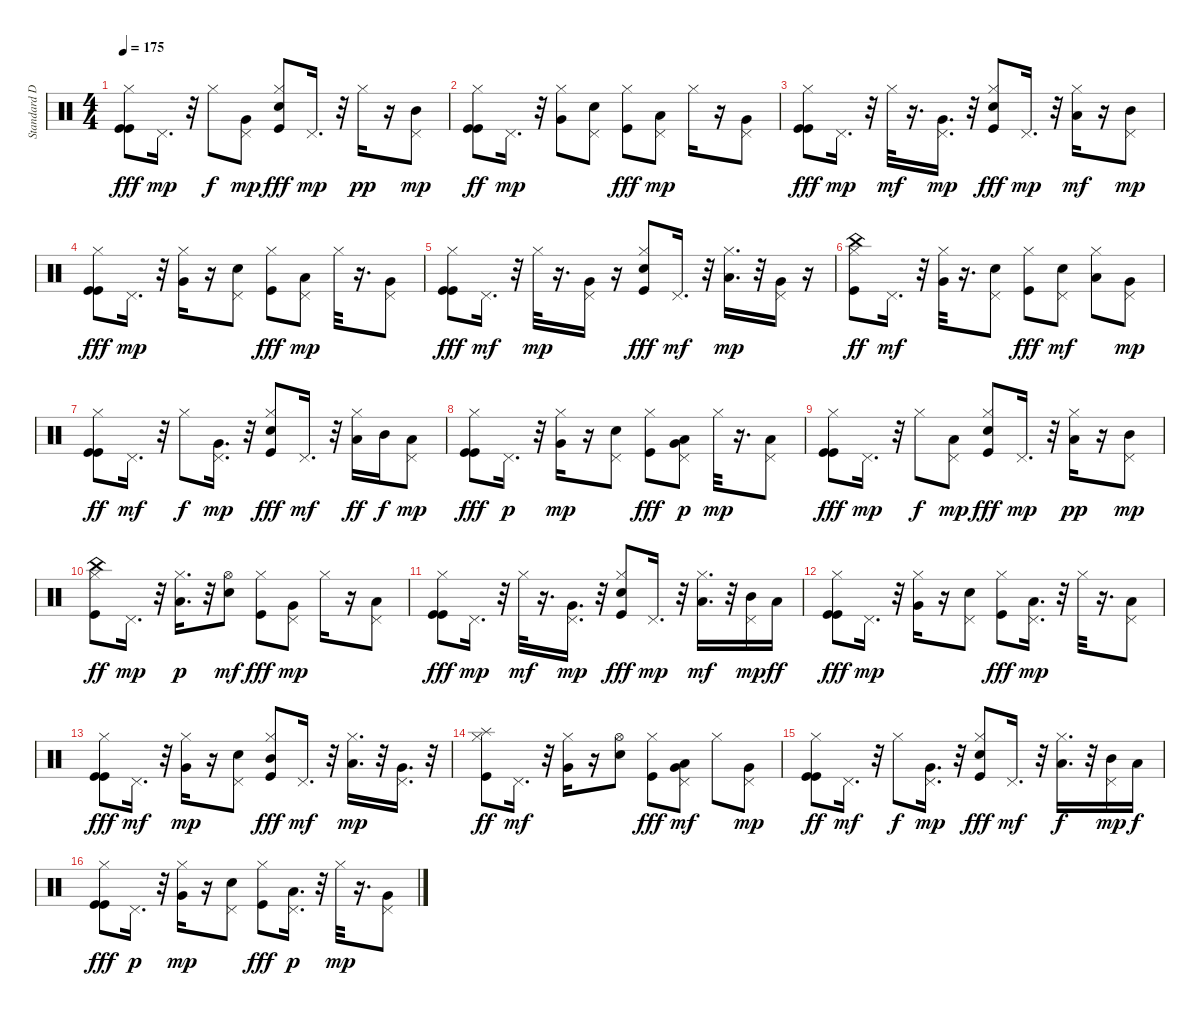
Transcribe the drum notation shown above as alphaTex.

\track ("Standard Drums" "Standard D") {instrument percussion}
\staff {score}
\articulation defaults
\ts (4 4)
\tempo 175
\clef neutral
\ks c
("Kick (hit)" "Kick (hit)" "Hi-Hat (closed)").8{dy fff} "Pedal Hi-Hat (hit)".16{d dy mp} r.32 "Hi-Hat (closed)".8{dy f} ("Very Low Tom (hit)" "Pedal Hi-Hat (hit)").8{dy mp} ("Snare (hit) 2" "Kick (hit)" "Hi-Hat (closed)").8{dy fff} "Pedal Hi-Hat (hit)".16{d dy mp} r.32 "Hi-Hat (closed)".16{dy pp} r.16 ("Mid Tom (hit)" "Pedal Hi-Hat (hit)").8{dy mp} |
("Kick (hit)" "Kick (hit)" "Hi-Hat (closed)").8{dy ff} "Pedal Hi-Hat (hit)".16{d dy mp} r.32 ("Very Low Tom (hit)" "Hi-Hat (closed)").8 ("Snare (hit) 2" "Pedal Hi-Hat (hit)").8 ("Kick (hit)" "Hi-Hat (closed)").8{dy fff} ("Low Tom (hit)" "Pedal Hi-Hat (hit)").8{dy mp} "Hi-Hat (closed)".16 r.16 ("Very Low Tom (hit)" "Pedal Hi-Hat (hit)").8 |
("Kick (hit)" "Kick (hit)" "Hi-Hat (closed)").8{dy fff} "Pedal Hi-Hat (hit)".16{d dy mp} r.32 "Hi-Hat (closed)".32{dy mf} r.16{d} ("Very Low Tom (hit)" "Pedal Hi-Hat (hit)").16{d dy mp} r.32 ("Snare (hit) 2" "Kick (hit)" "Hi-Hat (closed)").8{dy fff} "Pedal Hi-Hat (hit)".16{d dy mp} r.32 ("Low Tom (hit)" "Hi-Hat (closed)").16{dy mf} r.16 ("Mid Tom (hit)" "Pedal Hi-Hat (hit)").8{dy mp} |
("Kick (hit)" "Kick (hit)" "Hi-Hat (closed)").8{dy fff} "Pedal Hi-Hat (hit)".16{d dy mp} r.32 ("Very Low Tom (hit)" "Hi-Hat (closed)").16 r.16 ("Snare (hit) 2" "Pedal Hi-Hat (hit)").8 ("Kick (hit)" "Hi-Hat (closed)").8{dy fff} ("Low Tom (hit)" "Pedal Hi-Hat (hit)").8{dy mp} "Hi-Hat (closed)".32 r.16{d} ("Very Low Tom (hit)" "Pedal Hi-Hat (hit)").8 |
("Kick (hit)" "Kick (hit)" "Hi-Hat (closed)").8{dy fff} "Pedal Hi-Hat (hit)".16{d dy mf} r.32 "Hi-Hat (closed)".32{dy mp} r.16{d} ("Very Low Tom (hit)" "Pedal Hi-Hat (hit)").16 r.16 ("Snare (hit) 2" "Kick (hit)" "Hi-Hat (closed)").8{dy fff} "Pedal Hi-Hat (hit)".16{d dy mf} r.32 ("Low Tom (hit)" "Hi-Hat (closed)").16{d dy mp} r.32 ("Very Low Tom (hit)" "Pedal Hi-Hat (hit)").16 r.16 |
("Kick (hit)" "China (hit)" "Hi-Hat (closed)").8{dy ff} "Pedal Hi-Hat (hit)".16{d dy mf} r.32 ("Very Low Tom (hit)" "Hi-Hat (closed)").32 r.16{d} ("Snare (hit) 2" "Pedal Hi-Hat (hit)").8 ("Kick (hit)" "Hi-Hat (closed)").8{dy fff} ("Electric Snare (hit)" "Pedal Hi-Hat (hit)").8{dy mf} ("Low Tom (hit)" "Hi-Hat (closed)").8 ("Very Low Tom (hit)" "Pedal Hi-Hat (hit)").8{dy mp} |
("Kick (hit)" "Kick (hit)" "Hi-Hat (closed)").8{dy ff} "Pedal Hi-Hat (hit)".16{d dy mf} r.32 "Hi-Hat (closed)".8{dy f} ("Very Low Tom (hit)" "Pedal Hi-Hat (hit)").16{d dy mp} r.32 ("Snare (hit) 2" "Kick (hit)" "Hi-Hat (closed)").8{dy fff} "Pedal Hi-Hat (hit)".16{d dy mf} r.32 ("Low Tom (hit)" "Hi-Hat (closed)").16{dy ff} "Mid Tom (hit)".16{dy f} ("Low Tom (hit)" "Pedal Hi-Hat (hit)").8{dy mp} |
("Kick (hit)" "Kick (hit)" "Hi-Hat (closed)").8{dy fff} "Pedal Hi-Hat (hit)".16{d dy p} r.32 ("Very Low Tom (hit)" "Hi-Hat (closed)").16{dy mp} r.16 ("Snare (hit) 2" "Pedal Hi-Hat (hit)").8 ("Kick (hit)" "Hi-Hat (closed)").8{dy fff} ("Very Low Tom (hit)" "Low Floor Tom (hit)" "Pedal Hi-Hat (hit)").8{dy p} "Hi-Hat (closed)".32{dy mp} r.16{d} ("Low Tom (hit)" "Pedal Hi-Hat (hit)").8 |
("Kick (hit)" "Kick (hit)" "Hi-Hat (closed)").8{dy fff} "Pedal Hi-Hat (hit)".16{d dy mp} r.32 "Hi-Hat (closed)".8{dy f} ("Low Tom (hit)" "Pedal Hi-Hat (hit)").8{dy mp} ("Snare (hit) 2" "Kick (hit)" "Hi-Hat (closed)").8{dy fff} "Pedal Hi-Hat (hit)".16{d dy mp} r.32 ("Low Tom (hit)" "Hi-Hat (closed)").16{dy pp} r.16 ("Mid Tom (hit)" "Pedal Hi-Hat (hit)").8{dy mp} |
("Kick (hit)" "China (hit)" "Hi-Hat (closed)").8{dy ff} "Pedal Hi-Hat (hit)".16{d dy mp} r.32 ("Low Tom (hit)" "Hi-Hat (closed)").16{d dy p} r.32 ("Snare (hit) 2" "Hi-Hat (open)").8{dy mf} ("Kick (hit)" "Hi-Hat (closed)").8{dy fff} ("Very Low Tom (hit)" "Pedal Hi-Hat (hit)").8{dy mp} "Hi-Hat (closed)".16 r.16 ("Low Tom (hit)" "Pedal Hi-Hat (hit)").8 |
("Kick (hit)" "Kick (hit)" "Hi-Hat (closed)").8{dy fff} "Pedal Hi-Hat (hit)".16{d dy mp} r.32 "Hi-Hat (closed)".32{dy mf} r.16{d} ("Very Low Tom (hit)" "Pedal Hi-Hat (hit)").16{d dy mp} r.32 ("Snare (hit) 2" "Kick (hit)" "Hi-Hat (closed)").8{dy fff} "Pedal Hi-Hat (hit)".16{d dy mp} r.32 ("Low Tom (hit)" "Hi-Hat (closed)").16{d dy mf} r.32 ("Mid Tom (hit)" "Pedal Hi-Hat (hit)").16{dy mp} "Low Tom (hit)".16{dy ff} |
("Kick (hit)" "Kick (hit)" "Hi-Hat (closed)").8{dy fff} "Pedal Hi-Hat (hit)".16{d dy mp} r.32 ("Very Low Tom (hit)" "Hi-Hat (closed)").16 r.16 ("Snare (hit) 2" "Pedal Hi-Hat (hit)").8 ("Kick (hit)" "Hi-Hat (closed)").8{dy fff} ("Low Tom (hit)" "Pedal Hi-Hat (hit)").16{d dy mp} r.32 "Hi-Hat (closed)".32 r.16{d} ("Low Tom (hit)" "Pedal Hi-Hat (hit)").8 |
("Kick (hit)" "Kick (hit)" "Hi-Hat (closed)").8{dy fff} "Pedal Hi-Hat (hit)".16{d dy mf} r.32 ("Very Low Tom (hit)" "Hi-Hat (closed)").16{dy mp} r.16 ("Snare (hit) 2" "Pedal Hi-Hat (hit)").8 ("Mid Tom (hit)" "Kick (hit)" "Hi-Hat (closed)").8{dy fff} "Pedal Hi-Hat (hit)".16{d dy mf} r.32 ("Low Tom (hit)" "Hi-Hat (closed)").16{d dy mp} r.32 ("Very Low Tom (hit)" "Pedal Hi-Hat (hit)").16{d} r.32 |
("Kick (hit)" "Splash (hit)" "Hi-Hat (closed)").8{dy ff} "Pedal Hi-Hat (hit)".16{d dy mf} r.32 ("Very Low Tom (hit)" "Hi-Hat (closed)").16 r.16 ("Snare (hit) 2" "Hi-Hat (open)").8 ("Kick (hit)" "Hi-Hat (closed)").8{dy fff} ("Low Tom (hit)" "Very Low Tom (hit)" "Pedal Hi-Hat (hit)").8{dy mf} "Hi-Hat (closed)".8 ("Very Low Tom (hit)" "Pedal Hi-Hat (hit)").8{dy mp} |
("Kick (hit)" "Kick (hit)" "Hi-Hat (closed)").8{dy ff} "Pedal Hi-Hat (hit)".16{d dy mf} r.32 "Hi-Hat (closed)".8{dy f} ("Very Low Tom (hit)" "Pedal Hi-Hat (hit)").16{d dy mp} r.32 ("Snare (hit) 2" "Kick (hit)" "Hi-Hat (closed)").8{dy fff} "Pedal Hi-Hat (hit)".16{d dy mf} r.32 ("Low Tom (hit)" "Hi-Hat (closed)").16{d dy f} r.32 ("Mid Tom (hit)" "Pedal Hi-Hat (hit)").16{dy mp} "Low Tom (hit)".16{dy f} |
("Kick (hit)" "Kick (hit)" "Hi-Hat (closed)").8{dy fff} "Pedal Hi-Hat (hit)".16{d dy p} r.32 ("Very Low Tom (hit)" "Hi-Hat (closed)").16{dy mp} r.16 ("Snare (hit) 2" "Pedal Hi-Hat (hit)").8 ("Kick (hit)" "Hi-Hat (closed)").8{dy fff} ("Low Tom (hit)" "Pedal Hi-Hat (hit)").16{d dy p} r.32 "Hi-Hat (closed)".32{dy mp} r.16{d} ("Very Low Tom (hit)" "Pedal Hi-Hat (hit)").8
